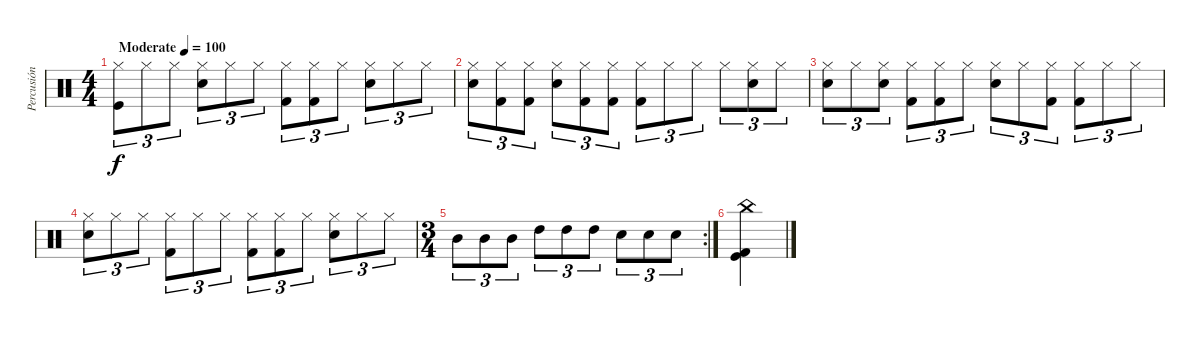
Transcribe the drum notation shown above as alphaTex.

\track ("Percusión" "Percusión") {instrument percussion}
\staff {score}
\articulation defaults
\ts (4 4)
\tempo (100 "Moderate")
\clef neutral
\ks c
("Kick (hit)" "Hi-Hat (closed)").8{tu (3 2) dy f} "Hi-Hat (closed)".8{tu (3 2)} "Hi-Hat (closed)".8{tu (3 2)} ("Snare (hit) 2" "Hi-Hat (closed)").8{tu (3 2)} "Hi-Hat (closed)".8{tu (3 2)} "Hi-Hat (closed)".8{tu (3 2)} ("Kick (hit) 2" "Hi-Hat (closed)").8{tu (3 2)} ("Kick (hit) 2" "Hi-Hat (closed)").8{tu (3 2)} "Hi-Hat (closed)".8{tu (3 2)} ("Snare (hit) 2" "Hi-Hat (closed)").8{tu (3 2)} "Hi-Hat (closed)".8{tu (3 2)} "Hi-Hat (closed)".8{tu (3 2)} |
("Snare (hit) 2" "Hi-Hat (closed)").8{tu (3 2)} ("Kick (hit) 2" "Hi-Hat (closed)").8{tu (3 2)} ("Kick (hit) 2" "Hi-Hat (closed)").8{tu (3 2)} ("Snare (hit) 2" "Hi-Hat (closed)").8{tu (3 2)} ("Kick (hit) 2" "Hi-Hat (closed)").8{tu (3 2)} ("Kick (hit) 2" "Hi-Hat (closed)").8{tu (3 2)} ("Kick (hit) 2" "Hi-Hat (closed)").8{tu (3 2)} "Hi-Hat (closed)".8{tu (3 2)} "Hi-Hat (closed)".8{tu (3 2)} "Hi-Hat (closed)".8{tu (3 2)} ("Snare (hit) 2" "Hi-Hat (closed)").8{tu (3 2)} "Hi-Hat (closed)".8{tu (3 2)} |
("Snare (hit) 2" "Hi-Hat (closed)").8{tu (3 2)} "Hi-Hat (closed)".8{tu (3 2)} ("Snare (hit) 2" "Hi-Hat (closed)").8{tu (3 2)} ("Kick (hit) 2" "Hi-Hat (closed)").8{tu (3 2)} ("Kick (hit) 2" "Hi-Hat (closed)").8{tu (3 2)} "Hi-Hat (closed)".8{tu (3 2)} ("Snare (hit) 2" "Hi-Hat (closed)").8{tu (3 2)} "Hi-Hat (closed)".8{tu (3 2)} ("Kick (hit) 2" "Hi-Hat (closed)").8{tu (3 2)} ("Kick (hit) 2" "Hi-Hat (closed)").8{tu (3 2)} "Hi-Hat (closed)".8{tu (3 2)} "Hi-Hat (closed)".8{tu (3 2)} |
("Snare (hit) 2" "Hi-Hat (closed)").8{tu (3 2)} "Hi-Hat (closed)".8{tu (3 2)} "Hi-Hat (closed)".8{tu (3 2)} ("Kick (hit) 2" "Hi-Hat (closed)").8{tu (3 2)} "Hi-Hat (closed)".8{tu (3 2)} "Hi-Hat (closed)".8{tu (3 2)} ("Kick (hit) 2" "Hi-Hat (closed)").8{tu (3 2)} ("Kick (hit) 2" "Hi-Hat (closed)").8{tu (3 2)} "Hi-Hat (closed)".8{tu (3 2)} ("Snare (hit) 2" "Hi-Hat (closed)").8{tu (3 2)} "Hi-Hat (closed)".8{tu (3 2)} "Hi-Hat (closed)".8{tu (3 2)} |
\rc 2
\ts (3 4)
"Mid Tom (hit)".8{tu (3 2)} "Mid Tom (hit)".8{tu (3 2)} "Mid Tom (hit)".8{tu (3 2)} "High Tom (hit)".8{tu (3 2)} "High Tom (hit)".8{tu (3 2)} "High Tom (hit)".8{tu (3 2)} "Snare (hit) 2".8{tu (3 2)} "Snare (hit) 2".8{tu (3 2)} "Snare (hit) 2".8{tu (3 2)} |
("Kick (hit) 2" "Kick (hit)" "China (hit)").4
